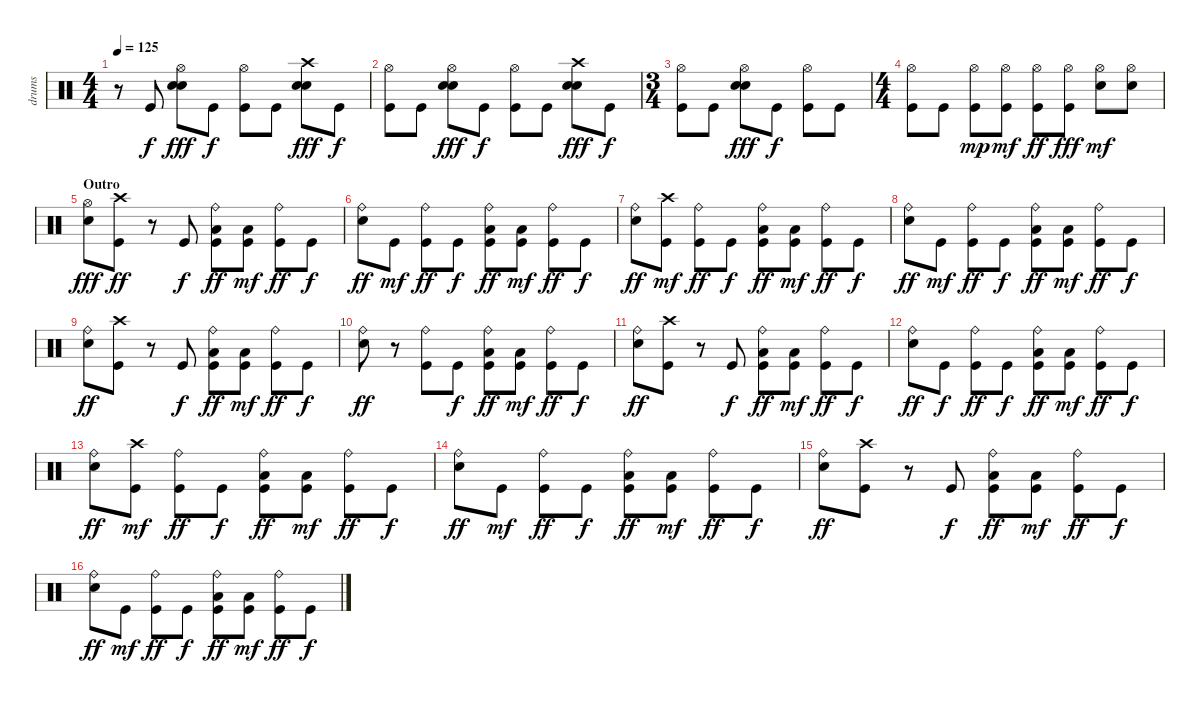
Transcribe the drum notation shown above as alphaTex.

\track ("drums" "drums") {instrument percussion}
\staff {score}
\articulation defaults
\ts (4 4)
\tempo 125
\clef neutral
\ks c
r.8{dy ff} "Kick (hit)".8{dy f} ("Electric Snare (hit)" "Hand Clap (hit)" "Hi-Hat (open)").8{dy fff} "Kick (hit)".8{dy f} ("Kick (hit)" "Hi-Hat (open)").8 "Kick (hit)".8 ("Electric Snare (hit)" "Hand Clap (hit)" "Crash high (hit)").8{dy fff} "Kick (hit)".8{dy f} |
("Kick (hit)" "Hi-Hat (open)").8 "Kick (hit)".8 ("Electric Snare (hit)" "Hand Clap (hit)" "Hi-Hat (open)").8{dy fff} "Kick (hit)".8{dy f} ("Kick (hit)" "Hi-Hat (open)").8 "Kick (hit)".8 ("Electric Snare (hit)" "Hand Clap (hit)" "Crash high (hit)").8{dy fff} "Kick (hit)".8{dy f} |
\ts (3 4)
("Kick (hit)" "Hi-Hat (open)").8 "Kick (hit)".8 ("Electric Snare (hit)" "Hand Clap (hit)" "Hi-Hat (open)").8{dy fff} "Kick (hit)".8{dy f} ("Kick (hit)" "Hi-Hat (open)").8 "Kick (hit)".8 |
\ts (4 4)
("Kick (hit)" "Hi-Hat (open)").8 "Kick (hit)".8 ("Kick (hit)" "Hi-Hat (open)").8{dy mp} ("Kick (hit)" "Hi-Hat (open)").8{dy mf} ("Kick (hit)" "Hi-Hat (open)").8{dy ff} ("Kick (hit)" "Hi-Hat (open)").8{dy fff} ("Electric Snare (hit)" "Hi-Hat (open)").8{dy mf} ("Electric Snare (hit)" "Hi-Hat (open)").8 |
\section ("" "Outro")
("Electric Snare (hit)" "Hi-Hat (open)").8{dy fff} ("Kick (hit)" "Crash high (hit)").8{dy ff} r.8 "Kick (hit)".8{dy f} ("Low Tom (hit)" "Kick (hit)" "Ride (bell)").8{dy ff} ("Low Tom (hit)" "Kick (hit)").8{dy mf} ("Kick (hit)" "Ride (bell)").8{dy ff} "Kick (hit)".8{dy f} |
("Electric Snare (hit)" "Ride (bell)").8{dy ff} "Kick (hit)".8{dy mf} ("Kick (hit)" "Ride (bell)").8{dy ff} "Kick (hit)".8{dy f} ("Low Tom (hit)" "Kick (hit)" "Ride (bell)").8{dy ff} ("Low Tom (hit)" "Kick (hit)").8{dy mf} ("Kick (hit)" "Ride (bell)").8{dy ff} "Kick (hit)".8{dy f} |
("Electric Snare (hit)" "Ride (bell)").8{dy ff} ("Kick (hit)" "Crash high (hit)").8{dy mf} ("Kick (hit)" "Ride (bell)").8{dy ff} "Kick (hit)".8{dy f} ("Low Tom (hit)" "Kick (hit)" "Ride (bell)").8{dy ff} ("Low Tom (hit)" "Kick (hit)").8{dy mf} ("Kick (hit)" "Ride (bell)").8{dy ff} "Kick (hit)".8{dy f} |
("Electric Snare (hit)" "Ride (bell)").8{dy ff} "Kick (hit)".8{dy mf} ("Kick (hit)" "Ride (bell)").8{dy ff} "Kick (hit)".8{dy f} ("Low Tom (hit)" "Kick (hit)" "Ride (bell)").8{dy ff} ("Low Tom (hit)" "Kick (hit)").8{dy mf} ("Kick (hit)" "Ride (bell)").8{dy ff} "Kick (hit)".8{dy f} |
("Electric Snare (hit)" "Ride (bell)").8{dy ff} ("Kick (hit)" "Crash high (hit)").8 r.8 "Kick (hit)".8{dy f} ("Low Tom (hit)" "Kick (hit)" "Ride (bell)").8{dy ff} ("Low Tom (hit)" "Kick (hit)").8{dy mf} ("Kick (hit)" "Ride (bell)").8{dy ff} "Kick (hit)".8{dy f} |
("Electric Snare (hit)" "Ride (bell)").8{dy ff} r.8 ("Kick (hit)" "Ride (bell)").8 "Kick (hit)".8{dy f} ("Low Tom (hit)" "Kick (hit)" "Ride (bell)").8{dy ff} ("Low Tom (hit)" "Kick (hit)").8{dy mf} ("Kick (hit)" "Ride (bell)").8{dy ff} "Kick (hit)".8{dy f} |
("Electric Snare (hit)" "Ride (bell)").8{dy ff} ("Kick (hit)" "Crash high (hit)").8 r.8 "Kick (hit)".8{dy f} ("Low Tom (hit)" "Kick (hit)" "Ride (bell)").8{dy ff} ("Low Tom (hit)" "Kick (hit)").8{dy mf} ("Kick (hit)" "Ride (bell)").8{dy ff} "Kick (hit)".8{dy f} |
("Electric Snare (hit)" "Ride (bell)").8{dy ff} "Kick (hit)".8{dy f} ("Kick (hit)" "Ride (bell)").8{dy ff} "Kick (hit)".8{dy f} ("Low Tom (hit)" "Kick (hit)" "Ride (bell)").8{dy ff} ("Low Tom (hit)" "Kick (hit)").8{dy mf} ("Kick (hit)" "Ride (bell)").8{dy ff} "Kick (hit)".8{dy f} |
("Electric Snare (hit)" "Ride (bell)").8{dy ff} ("Kick (hit)" "Crash high (hit)").8{dy mf} ("Kick (hit)" "Ride (bell)").8{dy ff} "Kick (hit)".8{dy f} ("Low Tom (hit)" "Kick (hit)" "Ride (bell)").8{dy ff} ("Low Tom (hit)" "Kick (hit)").8{dy mf} ("Kick (hit)" "Ride (bell)").8{dy ff} "Kick (hit)".8{dy f} |
("Electric Snare (hit)" "Ride (bell)").8{dy ff} "Kick (hit)".8{dy mf} ("Kick (hit)" "Ride (bell)").8{dy ff} "Kick (hit)".8{dy f} ("Low Tom (hit)" "Kick (hit)" "Ride (bell)").8{dy ff} ("Low Tom (hit)" "Kick (hit)").8{dy mf} ("Kick (hit)" "Ride (bell)").8{dy ff} "Kick (hit)".8{dy f} |
("Electric Snare (hit)" "Ride (bell)").8{dy ff} ("Kick (hit)" "Crash high (hit)").8 r.8 "Kick (hit)".8{dy f} ("Low Tom (hit)" "Kick (hit)" "Ride (bell)").8{dy ff} ("Low Tom (hit)" "Kick (hit)").8{dy mf} ("Kick (hit)" "Ride (bell)").8{dy ff} "Kick (hit)".8{dy f} |
("Electric Snare (hit)" "Ride (bell)").8{dy ff} "Kick (hit)".8{dy mf} ("Kick (hit)" "Ride (bell)").8{dy ff} "Kick (hit)".8{dy f} ("Low Tom (hit)" "Kick (hit)" "Ride (bell)").8{dy ff} ("Low Tom (hit)" "Kick (hit)").8{dy mf} ("Kick (hit)" "Ride (bell)").8{dy ff} "Kick (hit)".8{dy f}
